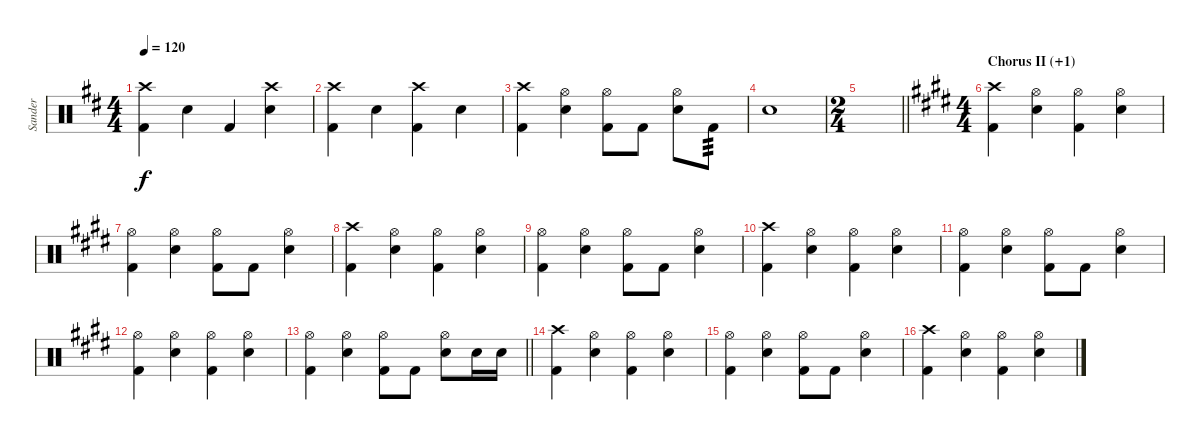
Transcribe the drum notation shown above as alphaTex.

\track ("Sander" "Sander") {instrument percussion}
\staff {score}
\articulation defaults
\ts (4 4)
\tempo 120
\clef neutral
\ks bminor
("Crash high (hit)" "Kick (hit) 2").4{dy f} "Snare (hit) 2".4 "Kick (hit) 2".4 ("Crash high (hit)" "Snare (hit) 2").4 |
("Crash high (hit)" "Kick (hit) 2").4 "Snare (hit) 2".4 ("Crash high (hit)" "Kick (hit) 2").4 "Snare (hit) 2".4 |
("Crash high (hit)" "Kick (hit) 2").4 ("Hi-Hat (open)" "Snare (hit) 2").4 ("Hi-Hat (open)" "Kick (hit) 2").8 "Kick (hit) 2".8 ("Hi-Hat (open)" "Snare (hit) 2").8 "Kick (hit) 2".8{tp 3} |
"Snare (hit) 2".1 |
\ts (2 4)
\barLineRight lightlight
|
\ts (4 4)
\section ("" "Chorus II (+1)")
\ks c#minor
("Crash high (hit)" "Kick (hit) 2").4 ("Hi-Hat (open)" "Snare (hit) 2").4 ("Hi-Hat (open)" "Kick (hit) 2").4 ("Hi-Hat (open)" "Snare (hit) 2").4 |
("Hi-Hat (open)" "Kick (hit) 2").4 ("Hi-Hat (open)" "Snare (hit) 2").4 ("Hi-Hat (open)" "Kick (hit) 2").8 "Kick (hit) 2".8 ("Hi-Hat (open)" "Snare (hit) 2").4 |
("Crash high (hit)" "Kick (hit) 2").4 ("Hi-Hat (open)" "Snare (hit) 2").4 ("Hi-Hat (open)" "Kick (hit) 2").4 ("Hi-Hat (open)" "Snare (hit) 2").4 |
("Hi-Hat (open)" "Kick (hit) 2").4 ("Hi-Hat (open)" "Snare (hit) 2").4 ("Hi-Hat (open)" "Kick (hit) 2").8 "Kick (hit) 2".8 ("Hi-Hat (open)" "Snare (hit) 2").4 |
("Crash high (hit)" "Kick (hit) 2").4 ("Hi-Hat (open)" "Snare (hit) 2").4 ("Hi-Hat (open)" "Kick (hit) 2").4 ("Hi-Hat (open)" "Snare (hit) 2").4 |
("Hi-Hat (open)" "Kick (hit) 2").4 ("Hi-Hat (open)" "Snare (hit) 2").4 ("Hi-Hat (open)" "Kick (hit) 2").8 "Kick (hit) 2".8 ("Hi-Hat (open)" "Snare (hit) 2").4 |
("Hi-Hat (open)" "Kick (hit) 2").4 ("Hi-Hat (open)" "Snare (hit) 2").4 ("Hi-Hat (open)" "Kick (hit) 2").4 ("Hi-Hat (open)" "Snare (hit) 2").4 |
\barLineRight lightlight
("Hi-Hat (open)" "Kick (hit) 2").4 ("Hi-Hat (open)" "Snare (hit) 2").4 ("Hi-Hat (open)" "Kick (hit) 2").8 "Kick (hit) 2".8 ("Hi-Hat (open)" "Snare (hit) 2").8 "Snare (hit) 2".16 "Snare (hit) 2".16 |
("Crash high (hit)" "Kick (hit) 2").4 ("Hi-Hat (open)" "Snare (hit) 2").4 ("Hi-Hat (open)" "Kick (hit) 2").4 ("Hi-Hat (open)" "Snare (hit) 2").4 |
("Hi-Hat (open)" "Kick (hit) 2").4 ("Hi-Hat (open)" "Snare (hit) 2").4 ("Hi-Hat (open)" "Kick (hit) 2").8 "Kick (hit) 2".8 ("Hi-Hat (open)" "Snare (hit) 2").4 |
("Crash high (hit)" "Kick (hit) 2").4 ("Hi-Hat (open)" "Snare (hit) 2").4 ("Hi-Hat (open)" "Kick (hit) 2").4 ("Hi-Hat (open)" "Snare (hit) 2").4
